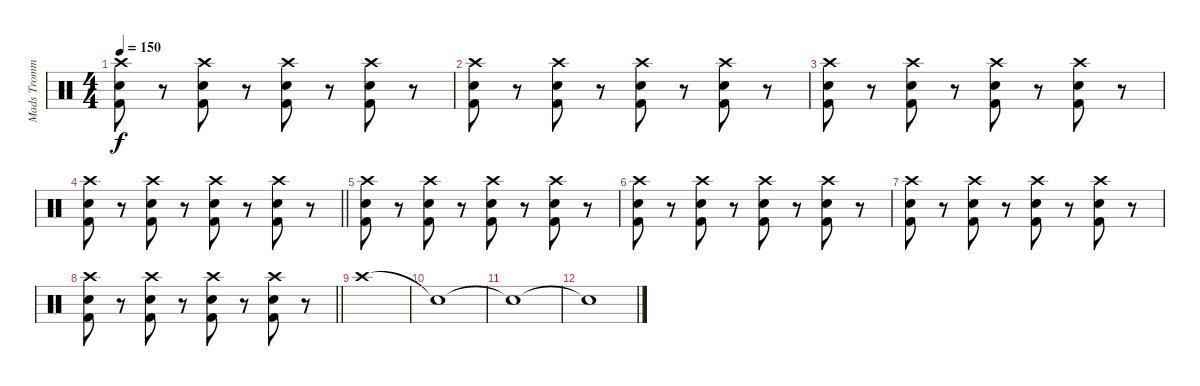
\track ("Mads Trommer" "Mads Tromm") {instrument percussion}
\staff {score}
\articulation defaults
\ts (4 4)
\tempo 150
\clef neutral
\ks c
("Crash high (hit)" "Electric Snare (hit)" "Kick (hit) 2").8{dy f} r.8 ("Crash high (hit)" "Electric Snare (hit)" "Kick (hit) 2").8 r.8 ("Crash high (hit)" "Electric Snare (hit)" "Kick (hit) 2").8 r.8 ("Crash high (hit)" "Electric Snare (hit)" "Kick (hit) 2").8 r.8 |
("Crash high (hit)" "Electric Snare (hit)" "Kick (hit) 2").8 r.8 ("Crash high (hit)" "Electric Snare (hit)" "Kick (hit) 2").8 r.8 ("Crash high (hit)" "Electric Snare (hit)" "Kick (hit) 2").8 r.8 ("Crash high (hit)" "Electric Snare (hit)" "Kick (hit) 2").8 r.8 |
("Crash high (hit)" "Electric Snare (hit)" "Kick (hit) 2").8 r.8 ("Crash high (hit)" "Electric Snare (hit)" "Kick (hit) 2").8 r.8 ("Crash high (hit)" "Electric Snare (hit)" "Kick (hit) 2").8 r.8 ("Crash high (hit)" "Electric Snare (hit)" "Kick (hit) 2").8 r.8 |
\barLineRight lightlight
("Crash high (hit)" "Electric Snare (hit)" "Kick (hit) 2").8 r.8 ("Crash high (hit)" "Electric Snare (hit)" "Kick (hit) 2").8 r.8 ("Crash high (hit)" "Electric Snare (hit)" "Kick (hit) 2").8 r.8 ("Crash high (hit)" "Electric Snare (hit)" "Kick (hit) 2").8 r.8 |
("Crash high (hit)" "Electric Snare (hit)" "Kick (hit) 2").8 r.8 ("Crash high (hit)" "Electric Snare (hit)" "Kick (hit) 2").8 r.8 ("Crash high (hit)" "Electric Snare (hit)" "Kick (hit) 2").8 r.8 ("Crash high (hit)" "Electric Snare (hit)" "Kick (hit) 2").8 r.8 |
("Crash high (hit)" "Electric Snare (hit)" "Kick (hit) 2").8 r.8 ("Crash high (hit)" "Electric Snare (hit)" "Kick (hit) 2").8 r.8 ("Crash high (hit)" "Electric Snare (hit)" "Kick (hit) 2").8 r.8 ("Crash high (hit)" "Electric Snare (hit)" "Kick (hit) 2").8 r.8 |
("Crash high (hit)" "Electric Snare (hit)" "Kick (hit) 2").8 r.8 ("Crash high (hit)" "Electric Snare (hit)" "Kick (hit) 2").8 r.8 ("Crash high (hit)" "Electric Snare (hit)" "Kick (hit) 2").8 r.8 ("Crash high (hit)" "Electric Snare (hit)" "Kick (hit) 2").8 r.8 |
\barLineRight lightlight
("Crash high (hit)" "Electric Snare (hit)" "Kick (hit) 2").8 r.8 ("Crash high (hit)" "Electric Snare (hit)" "Kick (hit) 2").8 r.8 ("Crash high (hit)" "Electric Snare (hit)" "Kick (hit) 2").8 r.8 ("Crash high (hit)" "Electric Snare (hit)" "Kick (hit) 2").8 r.8 |
"Crash high (hit)".1 |
"Snare (hit)"{t}.1 |
"Snare (hit)"{t}.1 |
"Snare (hit)"{t}.1
